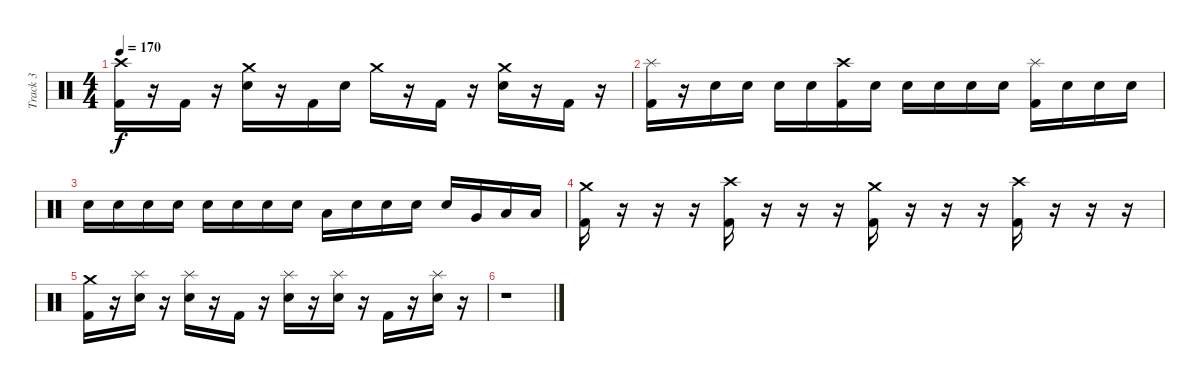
\track ("Track 3" "Track 3") {instrument percussion}
\staff {score}
\articulation defaults
\ts (4 4)
\tempo 170
\clef neutral
\ks c
("Kick (hit) 2" "Crash high (hit)").16{dy f} r.16 "Kick (hit) 2".16 r.16 ("Crash medium (hit)" "Electric Snare (hit)").16 r.16 "Kick (hit) 2".16 "Electric Snare (hit)".16 "Crash medium (hit)".16 r.16 "Kick (hit) 2".16 r.16 ("Crash medium (hit)" "Snare (hit) 2").16 r.16 "Kick (hit) 2".16 r.16 |
("Kick (hit) 2" "Splash (hit)").16 r.16 "Electric Snare (hit)".16 "Electric Snare (hit)".16 "Electric Snare (hit)".16 "Electric Snare (hit)".16 ("Kick (hit) 2" "Crash high (hit)").16 "Electric Snare (hit)".16 "Electric Snare (hit)".16 "Electric Snare (hit)".16 "Electric Snare (hit)".16 "Electric Snare (hit)".16 ("Kick (hit) 2" "Splash (hit)").16 "Electric Snare (hit)".16 "Electric Snare (hit)".16 "Electric Snare (hit)".16 |
"Electric Snare (hit)".16 "Electric Snare (hit)".16 "Electric Snare (hit)".16 "Electric Snare (hit)".16 "Electric Snare (hit)".16 "Electric Snare (hit)".16 "Electric Snare (hit)".16 "Electric Snare (hit)".16 "Low Tom (hit)".16 "Electric Snare (hit)".16 "Electric Snare (hit)".16 "Electric Snare (hit)".16 "Electric Snare (hit)".16 "Very Low Tom (hit)".16 "Low Floor Tom (hit)".16 "Low Floor Tom (hit)".16 |
("Kick (hit) 2" "Crash medium (hit)").16 r.16 r.16 r.16 ("Crash high (hit)" "Kick (hit) 2").16 r.16 r.16 r.16 ("Crash medium (hit)" "Kick (hit) 2").16 r.16 r.16 r.16 ("Kick (hit) 2" "Crash high (hit)").16 r.16 r.16 r.16 |
("Kick (hit) 2" "Crash medium (hit)").16 r.16 ("Electric Snare (hit)" "Splash (hit)").16 r.16 ("Electric Snare (hit)" "Splash (hit)").16 r.16 "Kick (hit) 2".16 r.16 ("Electric Snare (hit)" "Splash (hit)").16 r.16 ("Electric Snare (hit)" "Splash (hit)").16 r.16 "Kick (hit) 2".16 r.16 ("Electric Snare (hit)" "Splash (hit)").16 r.16 |
r.1
